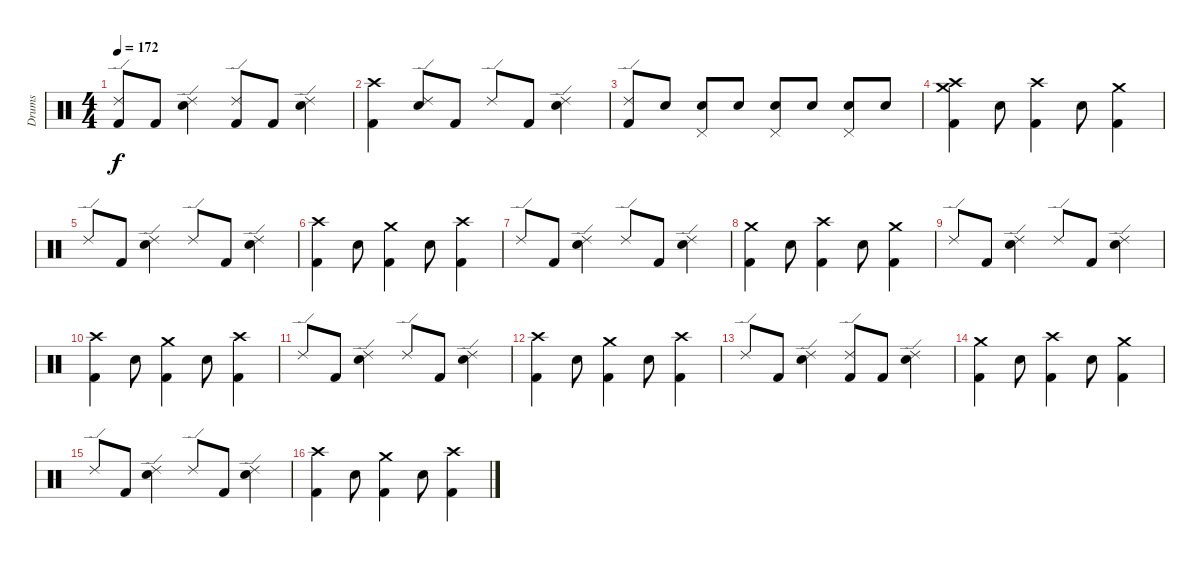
\track ("Drums" "Drums") {instrument percussion}
\staff {score}
\articulation defaults
\ts (4 4)
\tempo 172
\clef neutral
\ks c
("Kick (hit) 2" "Ride (edge) 2").8{dy f} "Kick (hit) 2".8 ("Snare (hit) 2" "Ride (edge) 2").4 ("Kick (hit) 2" "Ride (edge) 2").8 "Kick (hit) 2".8 ("Snare (hit) 2" "Ride (edge) 2").4 |
("Crash high (hit)" "Kick (hit) 2").4 ("Ride (edge) 2" "Snare (hit) 2").8 "Kick (hit) 2".8 "Ride (edge) 2".8 "Kick (hit) 2".8 ("Ride (edge) 2" "Snare (hit) 2").4 |
("Ride (edge) 2" "Kick (hit) 2").8 "Snare (hit) 2".8 ("Pedal Hi-Hat (hit)" "Snare (hit) 2").8 "Snare (hit) 2".8 ("Pedal Hi-Hat (hit)" "Snare (hit) 2").8 "Snare (hit) 2".8 ("Pedal Hi-Hat (hit)" "Snare (hit) 2").8 "Snare (hit) 2".8 |
("Crash high (hit)" "Crash medium (hit)" "Kick (hit) 2").4 "Snare (hit) 2".8 ("Crash high (hit)" "Kick (hit) 2").4 "Snare (hit) 2".8 ("Crash medium (hit)" "Kick (hit) 2").4 |
"Ride (edge) 2".8 "Kick (hit) 2".8 ("Ride (edge) 2" "Snare (hit) 2").4 "Ride (edge) 2".8 "Kick (hit) 2".8 ("Ride (edge) 2" "Snare (hit) 2").4 |
("Crash high (hit)" "Kick (hit) 2").4 "Snare (hit) 2".8 ("Crash medium (hit)" "Kick (hit) 2").4 "Snare (hit) 2".8 ("Crash high (hit)" "Kick (hit) 2").4 |
"Ride (edge) 2".8 "Kick (hit) 2".8 ("Ride (edge) 2" "Snare (hit) 2").4 "Ride (edge) 2".8 "Kick (hit) 2".8 ("Ride (edge) 2" "Snare (hit) 2").4 |
("Crash medium (hit)" "Kick (hit) 2").4 "Snare (hit) 2".8 ("Crash high (hit)" "Kick (hit) 2").4 "Snare (hit) 2".8 ("Crash medium (hit)" "Kick (hit) 2").4 |
"Ride (edge) 2".8 "Kick (hit) 2".8 ("Ride (edge) 2" "Snare (hit) 2").4 "Ride (edge) 2".8 "Kick (hit) 2".8 ("Ride (edge) 2" "Snare (hit) 2").4 |
("Crash high (hit)" "Kick (hit) 2").4 "Snare (hit) 2".8 ("Crash medium (hit)" "Kick (hit) 2").4 "Snare (hit) 2".8 ("Crash high (hit)" "Kick (hit) 2").4 |
"Ride (edge) 2".8 "Kick (hit) 2".8 ("Ride (edge) 2" "Snare (hit) 2").4 "Ride (edge) 2".8 "Kick (hit) 2".8 ("Ride (edge) 2" "Snare (hit) 2").4 |
("Crash high (hit)" "Kick (hit) 2").4 "Snare (hit) 2".8 ("Crash medium (hit)" "Kick (hit) 2").4 "Snare (hit) 2".8 ("Crash high (hit)" "Kick (hit) 2").4 |
"Ride (edge) 2".8 "Kick (hit) 2".8 ("Snare (hit) 2" "Ride (edge) 2").4 ("Kick (hit) 2" "Ride (edge) 2").8 "Kick (hit) 2".8 ("Snare (hit) 2" "Ride (edge) 2").4 |
("Crash medium (hit)" "Kick (hit) 2").4 "Snare (hit) 2".8 ("Crash high (hit)" "Kick (hit) 2").4 "Snare (hit) 2".8 ("Crash medium (hit)" "Kick (hit) 2").4 |
"Ride (edge) 2".8 "Kick (hit) 2".8 ("Snare (hit) 2" "Ride (edge) 2").4 "Ride (edge) 2".8 "Kick (hit) 2".8 ("Snare (hit) 2" "Ride (edge) 2").4 |
("Kick (hit) 2" "Crash high (hit)").4 "Snare (hit) 2".8 ("Kick (hit) 2" "Crash medium (hit)").4 "Snare (hit) 2".8 ("Kick (hit) 2" "Crash high (hit)").4
